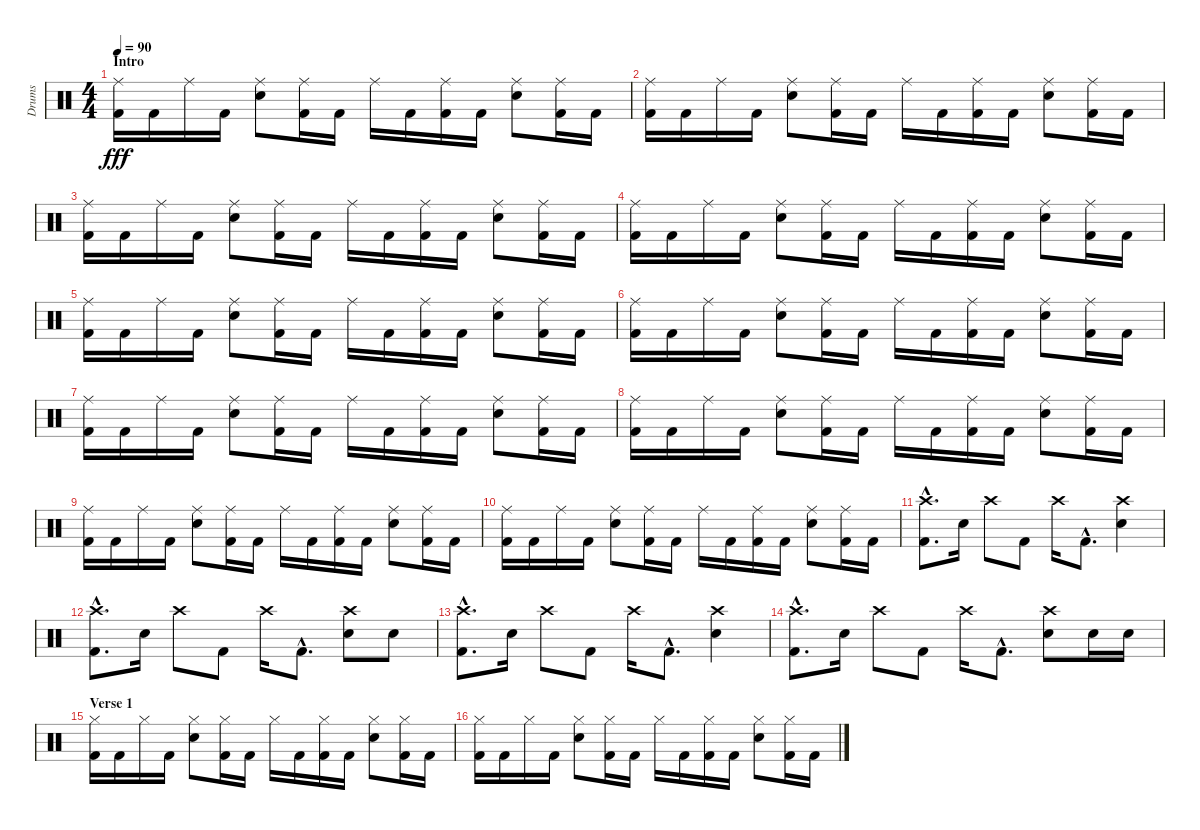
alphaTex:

\track ("Drums" "Drums") {instrument percussion}
\staff {score}
\articulation defaults
\ts (4 4)
\section ("" "Intro")
\tempo 90
\clef neutral
\ks c
("Ride (middle)" "Kick (hit) 2").16{dy fff} "Kick (hit) 2".16 "Ride (middle)".16 "Kick (hit) 2".16 ("Ride (middle)" "Electric Snare (hit)").8 ("Ride (middle)" "Kick (hit) 2").16 "Kick (hit) 2".16 "Ride (middle)".16 "Kick (hit) 2".16 ("Ride (middle)" "Kick (hit) 2").16 "Kick (hit) 2".16 ("Ride (middle)" "Electric Snare (hit)").8 ("Ride (middle)" "Kick (hit) 2").16 "Kick (hit) 2".16 |
("Ride (middle)" "Kick (hit) 2").16 "Kick (hit) 2".16 "Ride (middle)".16 "Kick (hit) 2".16 ("Ride (middle)" "Electric Snare (hit)").8 ("Ride (middle)" "Kick (hit) 2").16 "Kick (hit) 2".16 "Ride (middle)".16 "Kick (hit) 2".16 ("Ride (middle)" "Kick (hit) 2").16 "Kick (hit) 2".16 ("Ride (middle)" "Electric Snare (hit)").8 ("Ride (middle)" "Kick (hit) 2").16 "Kick (hit) 2".16 |
("Ride (middle)" "Kick (hit) 2").16 "Kick (hit) 2".16 "Ride (middle)".16 "Kick (hit) 2".16 ("Ride (middle)" "Electric Snare (hit)").8 ("Ride (middle)" "Kick (hit) 2").16 "Kick (hit) 2".16 "Ride (middle)".16 "Kick (hit) 2".16 ("Ride (middle)" "Kick (hit) 2").16 "Kick (hit) 2".16 ("Ride (middle)" "Electric Snare (hit)").8 ("Ride (middle)" "Kick (hit) 2").16 "Kick (hit) 2".16 |
("Ride (middle)" "Kick (hit) 2").16 "Kick (hit) 2".16 "Ride (middle)".16 "Kick (hit) 2".16 ("Ride (middle)" "Electric Snare (hit)").8 ("Ride (middle)" "Kick (hit) 2").16 "Kick (hit) 2".16 "Ride (middle)".16 "Kick (hit) 2".16 ("Ride (middle)" "Kick (hit) 2").16 "Kick (hit) 2".16 ("Ride (middle)" "Electric Snare (hit)").8 ("Ride (middle)" "Kick (hit) 2").16 "Kick (hit) 2".16 |
("Ride (middle)" "Kick (hit) 2").16 "Kick (hit) 2".16 "Ride (middle)".16 "Kick (hit) 2".16 ("Ride (middle)" "Electric Snare (hit)").8 ("Ride (middle)" "Kick (hit) 2").16 "Kick (hit) 2".16 "Ride (middle)".16 "Kick (hit) 2".16 ("Ride (middle)" "Kick (hit) 2").16 "Kick (hit) 2".16 ("Ride (middle)" "Electric Snare (hit)").8 ("Ride (middle)" "Kick (hit) 2").16 "Kick (hit) 2".16 |
("Ride (middle)" "Kick (hit) 2").16 "Kick (hit) 2".16 "Ride (middle)".16 "Kick (hit) 2".16 ("Ride (middle)" "Electric Snare (hit)").8 ("Ride (middle)" "Kick (hit) 2").16 "Kick (hit) 2".16 "Ride (middle)".16 "Kick (hit) 2".16 ("Ride (middle)" "Kick (hit) 2").16 "Kick (hit) 2".16 ("Ride (middle)" "Electric Snare (hit)").8 ("Ride (middle)" "Kick (hit) 2").16 "Kick (hit) 2".16 |
("Ride (middle)" "Kick (hit) 2").16 "Kick (hit) 2".16 "Ride (middle)".16 "Kick (hit) 2".16 ("Ride (middle)" "Electric Snare (hit)").8 ("Ride (middle)" "Kick (hit) 2").16 "Kick (hit) 2".16 "Ride (middle)".16 "Kick (hit) 2".16 ("Ride (middle)" "Kick (hit) 2").16 "Kick (hit) 2".16 ("Ride (middle)" "Electric Snare (hit)").8 ("Ride (middle)" "Kick (hit) 2").16 "Kick (hit) 2".16 |
("Ride (middle)" "Kick (hit) 2").16 "Kick (hit) 2".16 "Ride (middle)".16 "Kick (hit) 2".16 ("Ride (middle)" "Electric Snare (hit)").8 ("Ride (middle)" "Kick (hit) 2").16 "Kick (hit) 2".16 "Ride (middle)".16 "Kick (hit) 2".16 ("Ride (middle)" "Kick (hit) 2").16 "Kick (hit) 2".16 ("Ride (middle)" "Electric Snare (hit)").8 ("Ride (middle)" "Kick (hit) 2").16 "Kick (hit) 2".16 |
("Ride (middle)" "Kick (hit) 2").16 "Kick (hit) 2".16 "Ride (middle)".16 "Kick (hit) 2".16 ("Ride (middle)" "Electric Snare (hit)").8 ("Ride (middle)" "Kick (hit) 2").16 "Kick (hit) 2".16 "Ride (middle)".16 "Kick (hit) 2".16 ("Ride (middle)" "Kick (hit) 2").16 "Kick (hit) 2".16 ("Ride (middle)" "Electric Snare (hit)").8 ("Ride (middle)" "Kick (hit) 2").16 "Kick (hit) 2".16 |
("Ride (middle)" "Kick (hit) 2").16 "Kick (hit) 2".16 "Ride (middle)".16 "Kick (hit) 2".16 ("Ride (middle)" "Electric Snare (hit)").8 ("Ride (middle)" "Kick (hit) 2").16 "Kick (hit) 2".16 "Ride (middle)".16 "Kick (hit) 2".16 ("Ride (middle)" "Kick (hit) 2").16 "Kick (hit) 2".16 ("Ride (middle)" "Electric Snare (hit)").8 ("Ride (middle)" "Kick (hit) 2").16 "Kick (hit) 2".16 |
("Crash high (hit)"{hac} "Kick (hit) 2"{hac}).8{d} "Electric Snare (hit)".16 "Crash high (hit)".8 "Kick (hit) 2".8 "Crash high (hit)".16 "Kick (hit) 2"{hac}.8{d} ("Crash high (hit)" "Electric Snare (hit)").4 |
("Crash high (hit)"{hac} "Kick (hit) 2"{hac}).8{d} "Electric Snare (hit)".16 "Crash high (hit)".8 "Kick (hit) 2".8 "Crash high (hit)".16 "Kick (hit) 2"{hac}.8{d} ("Crash high (hit)" "Electric Snare (hit)").8 "Electric Snare (hit)".8 |
("Crash high (hit)"{hac} "Kick (hit) 2"{hac}).8{d} "Electric Snare (hit)".16 "Crash high (hit)".8 "Kick (hit) 2".8 "Crash high (hit)".16 "Kick (hit) 2"{hac}.8{d} ("Crash high (hit)" "Electric Snare (hit)").4 |
("Crash high (hit)"{hac} "Kick (hit) 2"{hac}).8{d} "Electric Snare (hit)".16 "Crash high (hit)".8 "Kick (hit) 2".8 "Crash high (hit)".16 "Kick (hit) 2"{hac}.8{d} ("Crash high (hit)" "Electric Snare (hit)").8 "Electric Snare (hit)".16 "Electric Snare (hit)".16 |
\section ("" "Verse 1")
("Hi-Hat (closed)" "Kick (hit) 2").16 "Kick (hit) 2".16 "Hi-Hat (closed)".16 "Kick (hit) 2".16 ("Hi-Hat (closed)" "Electric Snare (hit)").8 ("Hi-Hat (closed)" "Kick (hit) 2").16 "Kick (hit) 2".16 "Hi-Hat (closed)".16 "Kick (hit) 2".16 ("Hi-Hat (closed)" "Kick (hit) 2").16 "Kick (hit) 2".16 ("Hi-Hat (closed)" "Electric Snare (hit)").8 ("Hi-Hat (closed)" "Kick (hit) 2").16 "Kick (hit) 2".16 |
("Hi-Hat (closed)" "Kick (hit) 2").16 "Kick (hit) 2".16 "Hi-Hat (closed)".16 "Kick (hit) 2".16 ("Hi-Hat (closed)" "Electric Snare (hit)").8 ("Hi-Hat (closed)" "Kick (hit) 2").16 "Kick (hit) 2".16 "Hi-Hat (closed)".16 "Kick (hit) 2".16 ("Hi-Hat (closed)" "Kick (hit) 2").16 "Kick (hit) 2".16 ("Hi-Hat (closed)" "Electric Snare (hit)").8 ("Hi-Hat (closed)" "Kick (hit) 2").16 "Kick (hit) 2".16
